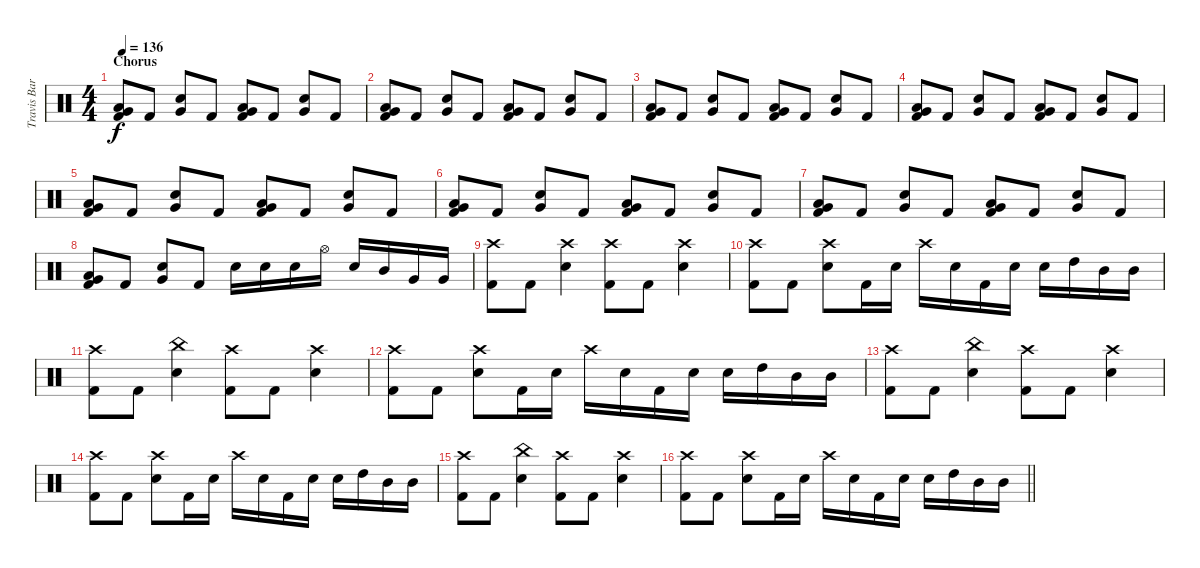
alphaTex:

\track ("Travis Barker - Drums" "Travis Bar") {instrument percussion}
\staff {score}
\articulation defaults
\ts (4 4)
\section ("" "Chorus")
\tempo 136
\clef neutral
\ks c
("Kick (hit) 2" "Very Low Tom (hit)" "Low Floor Tom (hit)").8{dy f} "Kick (hit) 2".8 ("Snare (hit) 2" "Very Low Tom (hit)").8 "Kick (hit) 2".8 ("Kick (hit) 2" "Very Low Tom (hit)" "Low Floor Tom (hit)").8 "Kick (hit) 2".8 ("Snare (hit) 2" "Very Low Tom (hit)").8 "Kick (hit) 2".8 |
("Kick (hit) 2" "Very Low Tom (hit)" "Low Floor Tom (hit)").8 "Kick (hit) 2".8 ("Snare (hit) 2" "Very Low Tom (hit)").8 "Kick (hit) 2".8 ("Kick (hit) 2" "Very Low Tom (hit)" "Low Floor Tom (hit)").8 "Kick (hit) 2".8 ("Snare (hit) 2" "Very Low Tom (hit)").8 "Kick (hit) 2".8 |
("Kick (hit) 2" "Very Low Tom (hit)" "Low Floor Tom (hit)").8 "Kick (hit) 2".8 ("Snare (hit) 2" "Very Low Tom (hit)").8 "Kick (hit) 2".8 ("Kick (hit) 2" "Very Low Tom (hit)" "Low Floor Tom (hit)").8 "Kick (hit) 2".8 ("Snare (hit) 2" "Very Low Tom (hit)").8 "Kick (hit) 2".8 |
("Kick (hit) 2" "Very Low Tom (hit)" "Low Floor Tom (hit)").8 "Kick (hit) 2".8 ("Snare (hit) 2" "Very Low Tom (hit)").8 "Kick (hit) 2".8 ("Kick (hit) 2" "Very Low Tom (hit)" "Low Floor Tom (hit)").8 "Kick (hit) 2".8 ("Snare (hit) 2" "Very Low Tom (hit)").8 "Kick (hit) 2".8 |
("Kick (hit) 2" "Very Low Tom (hit)" "Low Floor Tom (hit)").8 "Kick (hit) 2".8 ("Snare (hit) 2" "Very Low Tom (hit)").8 "Kick (hit) 2".8 ("Kick (hit) 2" "Very Low Tom (hit)" "Low Floor Tom (hit)").8 "Kick (hit) 2".8 ("Snare (hit) 2" "Very Low Tom (hit)").8 "Kick (hit) 2".8 |
("Kick (hit) 2" "Very Low Tom (hit)" "Low Floor Tom (hit)").8 "Kick (hit) 2".8 ("Snare (hit) 2" "Very Low Tom (hit)").8 "Kick (hit) 2".8 ("Kick (hit) 2" "Very Low Tom (hit)" "Low Floor Tom (hit)").8 "Kick (hit) 2".8 ("Snare (hit) 2" "Very Low Tom (hit)").8 "Kick (hit) 2".8 |
("Kick (hit) 2" "Very Low Tom (hit)" "Low Floor Tom (hit)").8 "Kick (hit) 2".8 ("Snare (hit) 2" "Very Low Tom (hit)").8 "Kick (hit) 2".8 ("Kick (hit) 2" "Very Low Tom (hit)" "Low Floor Tom (hit)").8 "Kick (hit) 2".8 ("Snare (hit) 2" "Very Low Tom (hit)").8 "Kick (hit) 2".8 |
("Kick (hit) 2" "Very Low Tom (hit)" "Low Floor Tom (hit)").8 "Kick (hit) 2".8 ("Snare (hit) 2" "Very Low Tom (hit)").8 "Kick (hit) 2".8 "Snare (hit) 2".16 "Snare (hit) 2".16 "Snare (hit) 2".16 "Hi-Hat (open)".16 "Snare (hit) 2".16 "Mid Tom (hit)".16 "Very Low Tom (hit)".16 "Very Low Tom (hit)".16 |
("Crash high (hit)" "Kick (hit) 2").8 "Kick (hit) 2".8 ("Crash high (hit)" "Snare (hit) 2").4 ("Crash high (hit)" "Kick (hit) 2").8 "Kick (hit) 2".8 ("Crash high (hit)" "Snare (hit) 2").4 |
("Crash high (hit)" "Kick (hit) 2").8 "Kick (hit) 2".8 ("Crash high (hit)" "Snare (hit) 2").8 "Kick (hit) 2".16 "Snare (hit) 2".16 "Crash high (hit)".16 "Snare (hit) 2".16 "Kick (hit) 2".16 "Snare (hit) 2".16 "Snare (hit) 2".16 "High Tom (hit)".16 "Mid Tom (hit)".16 "Mid Tom (hit)".16 |
("Crash high (hit)" "Kick (hit) 2").8 "Kick (hit) 2".8 ("China (hit)" "Snare (hit) 2").4 ("Crash high (hit)" "Kick (hit) 2").8 "Kick (hit) 2".8 ("Crash high (hit)" "Snare (hit) 2").4 |
("Crash high (hit)" "Kick (hit) 2").8 "Kick (hit) 2".8 ("Crash high (hit)" "Snare (hit) 2").8 "Kick (hit) 2".16 "Snare (hit) 2".16 "Crash high (hit)".16 "Snare (hit) 2".16 "Kick (hit) 2".16 "Snare (hit) 2".16 "Snare (hit) 2".16 "High Tom (hit)".16 "Mid Tom (hit)".16 "Mid Tom (hit)".16 |
("Crash high (hit)" "Kick (hit) 2").8 "Kick (hit) 2".8 ("China (hit)" "Snare (hit) 2").4 ("Crash high (hit)" "Kick (hit) 2").8 "Kick (hit) 2".8 ("Crash high (hit)" "Snare (hit) 2").4 |
("Crash high (hit)" "Kick (hit) 2").8 "Kick (hit) 2".8 ("Crash high (hit)" "Snare (hit) 2").8 "Kick (hit) 2".16 "Snare (hit) 2".16 "Crash high (hit)".16 "Snare (hit) 2".16 "Kick (hit) 2".16 "Snare (hit) 2".16 "Snare (hit) 2".16 "High Tom (hit)".16 "Mid Tom (hit)".16 "Mid Tom (hit)".16 |
("Crash high (hit)" "Kick (hit) 2").8 "Kick (hit) 2".8 ("China (hit)" "Snare (hit) 2").4 ("Crash high (hit)" "Kick (hit) 2").8 "Kick (hit) 2".8 ("Crash high (hit)" "Snare (hit) 2").4 |
\barLineRight lightlight
("Crash high (hit)" "Kick (hit) 2").8 "Kick (hit) 2".8 ("Crash high (hit)" "Snare (hit) 2").8 "Kick (hit) 2".16 "Snare (hit) 2".16 "Crash high (hit)".16 "Snare (hit) 2".16 "Kick (hit) 2".16 "Snare (hit) 2".16 "Snare (hit) 2".16 "High Tom (hit)".16 "Mid Tom (hit)".16 "Mid Tom (hit)".16
